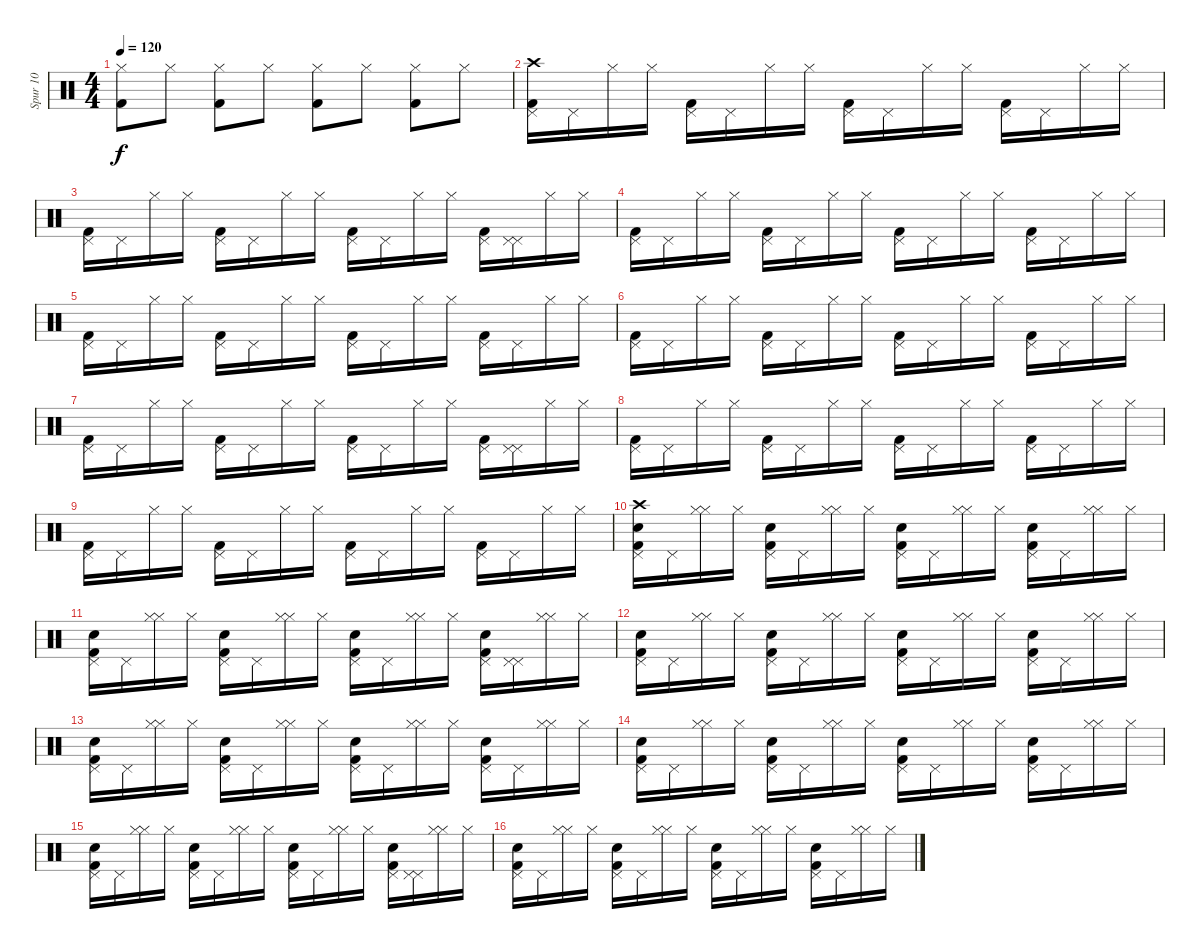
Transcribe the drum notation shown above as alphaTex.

\track ("Spur 10" "Spur 10") {instrument percussion}
\staff {score}
\articulation defaults
\ts (4 4)
\tempo 120
\clef neutral
\ks c
("Kick (hit) 2" "Hi-Hat (closed)").8{dy f} "Hi-Hat (closed)".8 ("Kick (hit) 2" "Hi-Hat (closed)").8 "Hi-Hat (closed)".8 ("Kick (hit) 2" "Hi-Hat (closed)").8 "Hi-Hat (closed)".8 ("Kick (hit) 2" "Hi-Hat (closed)").8 "Hi-Hat (closed)".8 |
("Crash high (hit)" "Kick (hit) 2" "Pedal Hi-Hat (hit)").16 "Pedal Hi-Hat (hit)".16 "Hi-Hat (closed)".16 "Hi-Hat (closed)".16 ("Kick (hit) 2" "Pedal Hi-Hat (hit)").16 "Pedal Hi-Hat (hit)".16 "Hi-Hat (closed)".16 "Hi-Hat (closed)".16 ("Kick (hit) 2" "Pedal Hi-Hat (hit)").16 "Pedal Hi-Hat (hit)".16 "Hi-Hat (closed)".16 "Hi-Hat (closed)".16 ("Kick (hit) 2" "Pedal Hi-Hat (hit)").16 "Pedal Hi-Hat (hit)".16 "Hi-Hat (closed)".16 "Hi-Hat (closed)".16 |
("Pedal Hi-Hat (hit)" "Kick (hit) 2").16 "Pedal Hi-Hat (hit)".16 "Hi-Hat (closed)".16 "Hi-Hat (closed)".16 ("Pedal Hi-Hat (hit)" "Kick (hit) 2").16 "Pedal Hi-Hat (hit)".16 "Hi-Hat (closed)".16 "Hi-Hat (closed)".16 ("Pedal Hi-Hat (hit)" "Kick (hit) 2").16 "Pedal Hi-Hat (hit)".16 "Hi-Hat (closed)".16 "Hi-Hat (closed)".16 ("Kick (hit) 2" "Pedal Hi-Hat (hit)").16 ("Pedal Hi-Hat (hit)" "Pedal Hi-Hat (hit)").16 "Hi-Hat (closed)".16 "Hi-Hat (closed)".16 |
("Pedal Hi-Hat (hit)" "Kick (hit) 2").16 "Pedal Hi-Hat (hit)".16 "Hi-Hat (closed)".16 "Hi-Hat (closed)".16 ("Pedal Hi-Hat (hit)" "Kick (hit) 2").16 "Pedal Hi-Hat (hit)".16 "Hi-Hat (closed)".16 "Hi-Hat (closed)".16 ("Pedal Hi-Hat (hit)" "Kick (hit) 2").16 "Pedal Hi-Hat (hit)".16 "Hi-Hat (closed)".16 "Hi-Hat (closed)".16 ("Pedal Hi-Hat (hit)" "Kick (hit) 2").16 "Pedal Hi-Hat (hit)".16 "Hi-Hat (closed)".16 "Hi-Hat (closed)".16 |
("Pedal Hi-Hat (hit)" "Kick (hit) 2").16 "Pedal Hi-Hat (hit)".16 "Hi-Hat (closed)".16 "Hi-Hat (closed)".16 ("Pedal Hi-Hat (hit)" "Kick (hit) 2").16 "Pedal Hi-Hat (hit)".16 "Hi-Hat (closed)".16 "Hi-Hat (closed)".16 ("Pedal Hi-Hat (hit)" "Kick (hit) 2").16 "Pedal Hi-Hat (hit)".16 "Hi-Hat (closed)".16 "Hi-Hat (closed)".16 ("Pedal Hi-Hat (hit)" "Kick (hit) 2").16 "Pedal Hi-Hat (hit)".16 "Hi-Hat (closed)".16 "Hi-Hat (closed)".16 |
("Kick (hit) 2" "Pedal Hi-Hat (hit)").16 "Pedal Hi-Hat (hit)".16 "Hi-Hat (closed)".16 "Hi-Hat (closed)".16 ("Kick (hit) 2" "Pedal Hi-Hat (hit)").16 "Pedal Hi-Hat (hit)".16 "Hi-Hat (closed)".16 "Hi-Hat (closed)".16 ("Kick (hit) 2" "Pedal Hi-Hat (hit)").16 "Pedal Hi-Hat (hit)".16 "Hi-Hat (closed)".16 "Hi-Hat (closed)".16 ("Kick (hit) 2" "Pedal Hi-Hat (hit)").16 "Pedal Hi-Hat (hit)".16 "Hi-Hat (closed)".16 "Hi-Hat (closed)".16 |
("Pedal Hi-Hat (hit)" "Kick (hit) 2").16 "Pedal Hi-Hat (hit)".16 "Hi-Hat (closed)".16 "Hi-Hat (closed)".16 ("Pedal Hi-Hat (hit)" "Kick (hit) 2").16 "Pedal Hi-Hat (hit)".16 "Hi-Hat (closed)".16 "Hi-Hat (closed)".16 ("Pedal Hi-Hat (hit)" "Kick (hit) 2").16 "Pedal Hi-Hat (hit)".16 "Hi-Hat (closed)".16 "Hi-Hat (closed)".16 ("Kick (hit) 2" "Pedal Hi-Hat (hit)").16 ("Pedal Hi-Hat (hit)" "Pedal Hi-Hat (hit)").16 "Hi-Hat (closed)".16 "Hi-Hat (closed)".16 |
("Pedal Hi-Hat (hit)" "Kick (hit) 2").16 "Pedal Hi-Hat (hit)".16 "Hi-Hat (closed)".16 "Hi-Hat (closed)".16 ("Pedal Hi-Hat (hit)" "Kick (hit) 2").16 "Pedal Hi-Hat (hit)".16 "Hi-Hat (closed)".16 "Hi-Hat (closed)".16 ("Pedal Hi-Hat (hit)" "Kick (hit) 2").16 "Pedal Hi-Hat (hit)".16 "Hi-Hat (closed)".16 "Hi-Hat (closed)".16 ("Pedal Hi-Hat (hit)" "Kick (hit) 2").16 "Pedal Hi-Hat (hit)".16 "Hi-Hat (closed)".16 "Hi-Hat (closed)".16 |
("Pedal Hi-Hat (hit)" "Kick (hit) 2").16 "Pedal Hi-Hat (hit)".16 "Hi-Hat (closed)".16 "Hi-Hat (closed)".16 ("Pedal Hi-Hat (hit)" "Kick (hit) 2").16 "Pedal Hi-Hat (hit)".16 "Hi-Hat (closed)".16 "Hi-Hat (closed)".16 ("Pedal Hi-Hat (hit)" "Kick (hit) 2").16 "Pedal Hi-Hat (hit)".16 "Hi-Hat (closed)".16 "Hi-Hat (closed)".16 ("Pedal Hi-Hat (hit)" "Kick (hit) 2").16 "Pedal Hi-Hat (hit)".16 "Hi-Hat (closed)".16 "Hi-Hat (closed)".16 |
("Crash high (hit)" "Kick (hit) 2" "Hand Clap (hit)" "Pedal Hi-Hat (hit)").16 "Pedal Hi-Hat (hit)".16 ("Hi-Hat (closed)" "Hi-Hat (closed)").16 "Hi-Hat (closed)".16 ("Kick (hit) 2" "Hand Clap (hit)" "Pedal Hi-Hat (hit)").16 "Pedal Hi-Hat (hit)".16 ("Hi-Hat (closed)" "Hi-Hat (closed)").16 "Hi-Hat (closed)".16 ("Kick (hit) 2" "Hand Clap (hit)" "Pedal Hi-Hat (hit)").16 "Pedal Hi-Hat (hit)".16 ("Hi-Hat (closed)" "Hi-Hat (closed)").16 "Hi-Hat (closed)".16 ("Kick (hit) 2" "Hand Clap (hit)" "Pedal Hi-Hat (hit)").16 "Pedal Hi-Hat (hit)".16 ("Hi-Hat (closed)" "Hi-Hat (closed)").16 "Hi-Hat (closed)".16 |
("Hand Clap (hit)" "Pedal Hi-Hat (hit)" "Kick (hit) 2").16 "Pedal Hi-Hat (hit)".16 ("Hi-Hat (closed)" "Hi-Hat (closed)").16 "Hi-Hat (closed)".16 ("Hand Clap (hit)" "Pedal Hi-Hat (hit)" "Kick (hit) 2").16 "Pedal Hi-Hat (hit)".16 ("Hi-Hat (closed)" "Hi-Hat (closed)").16 "Hi-Hat (closed)".16 ("Hand Clap (hit)" "Pedal Hi-Hat (hit)" "Kick (hit) 2").16 "Pedal Hi-Hat (hit)".16 ("Hi-Hat (closed)" "Hi-Hat (closed)").16 "Hi-Hat (closed)".16 ("Hand Clap (hit)" "Kick (hit) 2" "Pedal Hi-Hat (hit)").16 ("Pedal Hi-Hat (hit)" "Pedal Hi-Hat (hit)").16 ("Hi-Hat (closed)" "Hi-Hat (closed)").16 "Hi-Hat (closed)".16 |
("Hand Clap (hit)" "Pedal Hi-Hat (hit)" "Kick (hit) 2").16 "Pedal Hi-Hat (hit)".16 ("Hi-Hat (closed)" "Hi-Hat (closed)").16 "Hi-Hat (closed)".16 ("Hand Clap (hit)" "Pedal Hi-Hat (hit)" "Kick (hit) 2").16 "Pedal Hi-Hat (hit)".16 ("Hi-Hat (closed)" "Hi-Hat (closed)").16 "Hi-Hat (closed)".16 ("Hand Clap (hit)" "Pedal Hi-Hat (hit)" "Kick (hit) 2").16 "Pedal Hi-Hat (hit)".16 ("Hi-Hat (closed)" "Hi-Hat (closed)").16 "Hi-Hat (closed)".16 ("Hand Clap (hit)" "Pedal Hi-Hat (hit)" "Kick (hit) 2").16 "Pedal Hi-Hat (hit)".16 ("Hi-Hat (closed)" "Hi-Hat (closed)").16 "Hi-Hat (closed)".16 |
("Hand Clap (hit)" "Pedal Hi-Hat (hit)" "Kick (hit) 2").16 "Pedal Hi-Hat (hit)".16 ("Hi-Hat (closed)" "Hi-Hat (closed)").16 "Hi-Hat (closed)".16 ("Hand Clap (hit)" "Pedal Hi-Hat (hit)" "Kick (hit) 2").16 "Pedal Hi-Hat (hit)".16 ("Hi-Hat (closed)" "Hi-Hat (closed)").16 "Hi-Hat (closed)".16 ("Hand Clap (hit)" "Pedal Hi-Hat (hit)" "Kick (hit) 2").16 "Pedal Hi-Hat (hit)".16 ("Hi-Hat (closed)" "Hi-Hat (closed)").16 "Hi-Hat (closed)".16 ("Hand Clap (hit)" "Pedal Hi-Hat (hit)" "Kick (hit) 2").16 "Pedal Hi-Hat (hit)".16 ("Hi-Hat (closed)" "Hi-Hat (closed)").16 "Hi-Hat (closed)".16 |
("Hand Clap (hit)" "Kick (hit) 2" "Pedal Hi-Hat (hit)").16 "Pedal Hi-Hat (hit)".16 ("Hi-Hat (closed)" "Hi-Hat (closed)").16 "Hi-Hat (closed)".16 ("Hand Clap (hit)" "Kick (hit) 2" "Pedal Hi-Hat (hit)").16 "Pedal Hi-Hat (hit)".16 ("Hi-Hat (closed)" "Hi-Hat (closed)").16 "Hi-Hat (closed)".16 ("Hand Clap (hit)" "Kick (hit) 2" "Pedal Hi-Hat (hit)").16 "Pedal Hi-Hat (hit)".16 ("Hi-Hat (closed)" "Hi-Hat (closed)").16 "Hi-Hat (closed)".16 ("Hand Clap (hit)" "Kick (hit) 2" "Pedal Hi-Hat (hit)").16 "Pedal Hi-Hat (hit)".16 ("Hi-Hat (closed)" "Hi-Hat (closed)").16 "Hi-Hat (closed)".16 |
("Hand Clap (hit)" "Pedal Hi-Hat (hit)" "Kick (hit) 2").16 "Pedal Hi-Hat (hit)".16 ("Hi-Hat (closed)" "Hi-Hat (closed)").16 "Hi-Hat (closed)".16 ("Hand Clap (hit)" "Pedal Hi-Hat (hit)" "Kick (hit) 2").16 "Pedal Hi-Hat (hit)".16 ("Hi-Hat (closed)" "Hi-Hat (closed)").16 "Hi-Hat (closed)".16 ("Hand Clap (hit)" "Pedal Hi-Hat (hit)" "Kick (hit) 2").16 "Pedal Hi-Hat (hit)".16 ("Hi-Hat (closed)" "Hi-Hat (closed)").16 "Hi-Hat (closed)".16 ("Hand Clap (hit)" "Kick (hit) 2" "Pedal Hi-Hat (hit)").16 ("Pedal Hi-Hat (hit)" "Pedal Hi-Hat (hit)").16 ("Hi-Hat (closed)" "Hi-Hat (closed)").16 "Hi-Hat (closed)".16 |
("Hand Clap (hit)" "Pedal Hi-Hat (hit)" "Kick (hit) 2").16 "Pedal Hi-Hat (hit)".16 ("Hi-Hat (closed)" "Hi-Hat (closed)").16 "Hi-Hat (closed)".16 ("Hand Clap (hit)" "Pedal Hi-Hat (hit)" "Kick (hit) 2").16 "Pedal Hi-Hat (hit)".16 ("Hi-Hat (closed)" "Hi-Hat (closed)").16 "Hi-Hat (closed)".16 ("Hand Clap (hit)" "Pedal Hi-Hat (hit)" "Kick (hit) 2").16 "Pedal Hi-Hat (hit)".16 ("Hi-Hat (closed)" "Hi-Hat (closed)").16 "Hi-Hat (closed)".16 ("Hand Clap (hit)" "Pedal Hi-Hat (hit)" "Kick (hit) 2").16 "Pedal Hi-Hat (hit)".16 ("Hi-Hat (closed)" "Hi-Hat (closed)").16 "Hi-Hat (closed)".16
